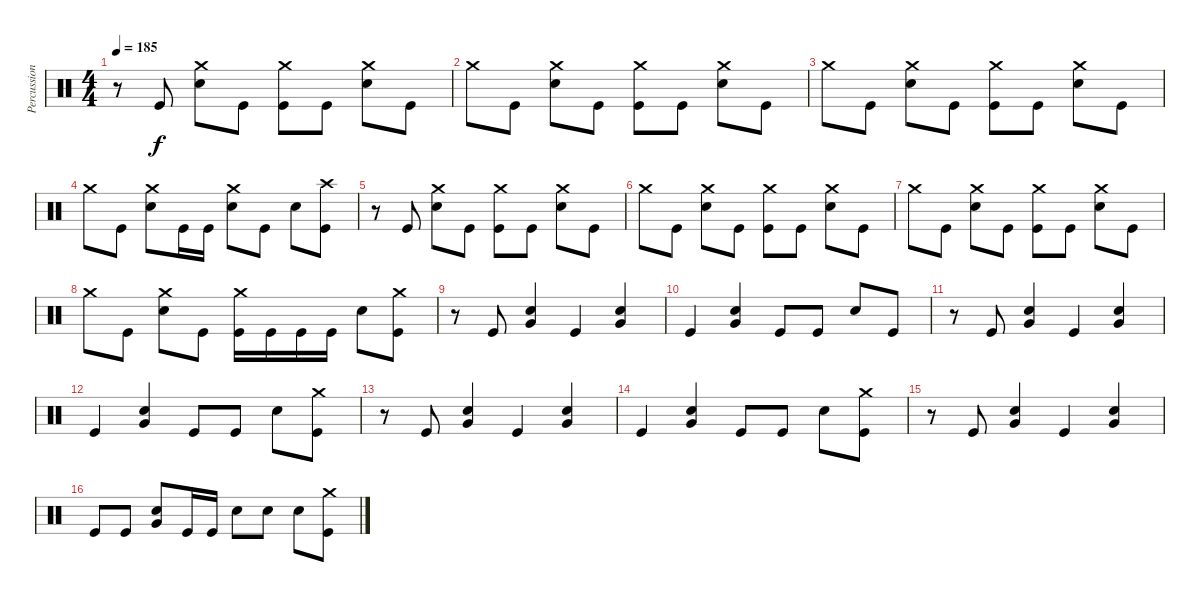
\track ("Percussion" "Percussion") {instrument percussion}
\staff {score}
\articulation defaults
\ts (4 4)
\tempo 185
\clef neutral
\ks c
r.8{dy f} "Kick (hit)".8 ("Crash medium (hit)" "Electric Snare (hit)").8 "Kick (hit)".8 ("Crash medium (hit)" "Kick (hit)").8 "Kick (hit)".8 ("Crash medium (hit)" "Electric Snare (hit)").8 "Kick (hit)".8 |
"Crash medium (hit)".8 "Kick (hit)".8 ("Crash medium (hit)" "Electric Snare (hit)").8 "Kick (hit)".8 ("Crash medium (hit)" "Kick (hit)").8 "Kick (hit)".8 ("Crash medium (hit)" "Electric Snare (hit)").8 "Kick (hit)".8 |
"Crash medium (hit)".8 "Kick (hit)".8 ("Crash medium (hit)" "Electric Snare (hit)").8 "Kick (hit)".8 ("Crash medium (hit)" "Kick (hit)").8 "Kick (hit)".8 ("Crash medium (hit)" "Electric Snare (hit)").8 "Kick (hit)".8 |
"Crash medium (hit)".8 "Kick (hit)".8 ("Crash medium (hit)" "Electric Snare (hit)").8 "Kick (hit)".16 "Kick (hit)".16 ("Crash medium (hit)" "Electric Snare (hit)").8 "Kick (hit)".8 "Electric Snare (hit)".8 ("Crash high (hit)" "Kick (hit)").8 |
r.8 "Kick (hit)".8 ("Crash medium (hit)" "Electric Snare (hit)").8 "Kick (hit)".8 ("Crash medium (hit)" "Kick (hit)").8 "Kick (hit)".8 ("Crash medium (hit)" "Electric Snare (hit)").8 "Kick (hit)".8 |
"Crash medium (hit)".8 "Kick (hit)".8 ("Crash medium (hit)" "Electric Snare (hit)").8 "Kick (hit)".8 ("Crash medium (hit)" "Kick (hit)").8 "Kick (hit)".8 ("Crash medium (hit)" "Electric Snare (hit)").8 "Kick (hit)".8 |
"Crash medium (hit)".8 "Kick (hit)".8 ("Crash medium (hit)" "Electric Snare (hit)").8 "Kick (hit)".8 ("Crash medium (hit)" "Kick (hit)").8 "Kick (hit)".8 ("Crash medium (hit)" "Electric Snare (hit)").8 "Kick (hit)".8 |
"Crash medium (hit)".8 "Kick (hit)".8 ("Crash medium (hit)" "Electric Snare (hit)").8 "Kick (hit)".8 ("Crash medium (hit)" "Kick (hit)").16 "Kick (hit)".16 "Kick (hit)".16 "Kick (hit)".16 "Electric Snare (hit)".8 ("Crash medium (hit)" "Kick (hit)").8 |
r.8 "Kick (hit)".8 ("Electric Snare (hit)" "Very Low Tom (hit)").4 "Kick (hit)".4 ("Electric Snare (hit)" "Very Low Tom (hit)").4 |
"Kick (hit)".4 ("Electric Snare (hit)" "Very Low Tom (hit)").4 "Kick (hit)".8 "Kick (hit)".8 "Electric Snare (hit)".8 "Kick (hit)".8 |
r.8 "Kick (hit)".8 ("Electric Snare (hit)" "Very Low Tom (hit)").4 "Kick (hit)".4 ("Electric Snare (hit)" "Very Low Tom (hit)").4 |
"Kick (hit)".4 ("Electric Snare (hit)" "Very Low Tom (hit)").4 "Kick (hit)".8 "Kick (hit)".8 "Electric Snare (hit)".8 ("Crash medium (hit)" "Kick (hit)").8 |
r.8 "Kick (hit)".8 ("Electric Snare (hit)" "Very Low Tom (hit)").4 "Kick (hit)".4 ("Electric Snare (hit)" "Very Low Tom (hit)").4 |
"Kick (hit)".4 ("Electric Snare (hit)" "Very Low Tom (hit)").4 "Kick (hit)".8 "Kick (hit)".8 "Electric Snare (hit)".8 ("Crash medium (hit)" "Kick (hit)").8 |
r.8 "Kick (hit)".8 ("Electric Snare (hit)" "Very Low Tom (hit)").4 "Kick (hit)".4 ("Electric Snare (hit)" "Very Low Tom (hit)").4 |
"Kick (hit)".8 "Kick (hit)".8 ("Electric Snare (hit)" "Very Low Tom (hit)").8 "Kick (hit)".16 "Kick (hit)".16 "Electric Snare (hit)".8 "Electric Snare (hit)".8 "Electric Snare (hit)".8 ("Crash medium (hit)" "Kick (hit)").8
